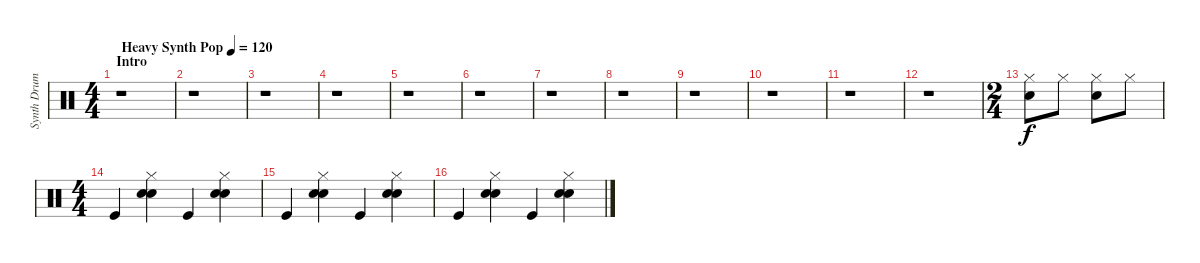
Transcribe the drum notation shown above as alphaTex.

\track ("Synth Drums" "Synth Drum") {instrument percussion}
\staff {score}
\articulation defaults
\ts (4 4)
\section ("" "Intro")
\tempo (120 "Heavy Synth Pop")
\clef neutral
\ks c
r.1{dy f} |
r.1 |
r.1 |
r.1 |
r.1 |
r.1 |
r.1 |
r.1 |
r.1 |
r.1 |
r.1 |
r.1 |
\ts (2 4)
("Hi-Hat (closed)" "Snare (hit) 2").8 "Hi-Hat (closed)".8 ("Hi-Hat (closed)" "Snare (hit) 2").8 "Hi-Hat (closed)".8 |
\ts (4 4)
"Kick (hit)".4 ("Hi-Hat (closed)" "Snare (hit) 2" "Hand Clap (hit)").4 "Kick (hit)".4 ("Hi-Hat (closed)" "Snare (hit) 2" "Hand Clap (hit)").4 |
"Kick (hit)".4 ("Hi-Hat (closed)" "Snare (hit) 2" "Hand Clap (hit)").4 "Kick (hit)".4 ("Hi-Hat (closed)" "Snare (hit) 2" "Hand Clap (hit)").4 |
"Kick (hit)".4 ("Hi-Hat (closed)" "Snare (hit) 2" "Hand Clap (hit)").4 "Kick (hit)".4 ("Hi-Hat (closed)" "Snare (hit) 2" "Hand Clap (hit)").4
